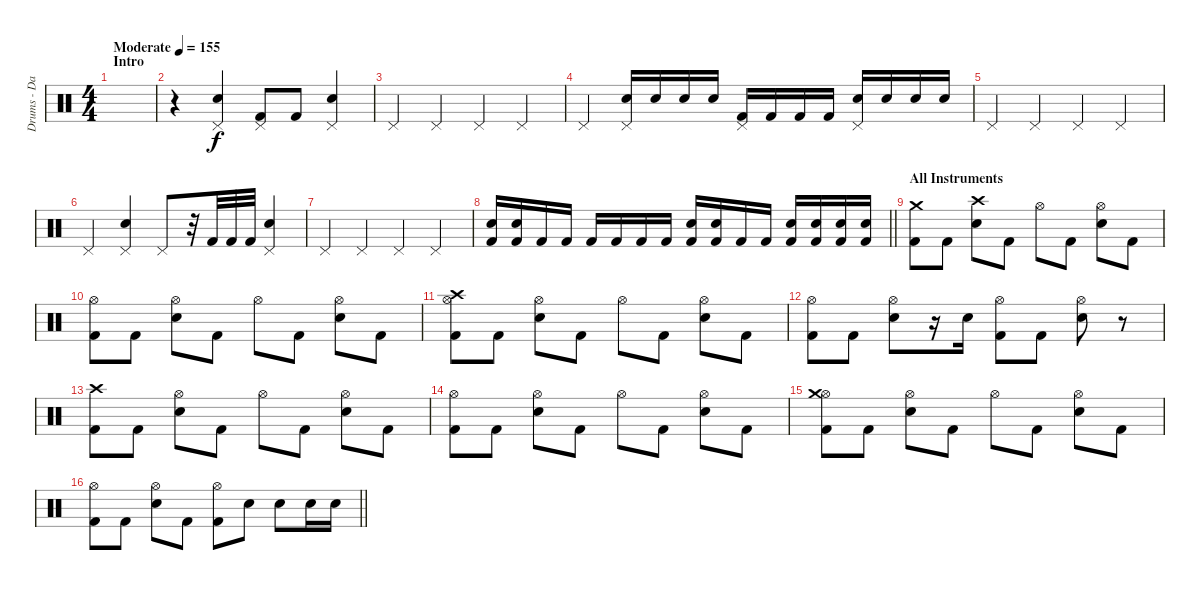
\track ("Drums - Daniel Adair" "Drums - Da") {instrument percussion bank 1}
\staff {score}
\articulation defaults
\ts (4 4)
\section ("" "Intro")
\tempo (155 "Moderate")
\clef neutral
\ks c
|
r.4 ("Pedal Hi-Hat (hit)" "Snare (hit) 2").4 ("Pedal Hi-Hat (hit)" "Kick (hit) 2").8 "Kick (hit) 2".8 ("Pedal Hi-Hat (hit)" "Snare (hit) 2").4 |
"Pedal Hi-Hat (hit)".4 "Pedal Hi-Hat (hit)".4 "Pedal Hi-Hat (hit)".4 "Pedal Hi-Hat (hit)".4 |
"Pedal Hi-Hat (hit)".4 ("Pedal Hi-Hat (hit)" "Snare (hit) 2").16 "Snare (hit) 2".16 "Snare (hit) 2".16 "Snare (hit) 2".16 ("Pedal Hi-Hat (hit)" "Kick (hit) 2").16 "Kick (hit) 2".16 "Kick (hit) 2".16 "Kick (hit) 2".16 ("Pedal Hi-Hat (hit)" "Snare (hit) 2").16 "Snare (hit) 2".16 "Snare (hit) 2".16 "Snare (hit) 2".16 |
"Pedal Hi-Hat (hit)".4 "Pedal Hi-Hat (hit)".4 "Pedal Hi-Hat (hit)".4 "Pedal Hi-Hat (hit)".4 |
"Pedal Hi-Hat (hit)".4 ("Pedal Hi-Hat (hit)" "Snare (hit) 2").4 "Pedal Hi-Hat (hit)".8 r.32 "Kick (hit) 2".32 "Kick (hit) 2".32 "Kick (hit) 2".32 ("Pedal Hi-Hat (hit)" "Snare (hit) 2").4 |
"Pedal Hi-Hat (hit)".4 "Pedal Hi-Hat (hit)".4 "Pedal Hi-Hat (hit)".4 "Pedal Hi-Hat (hit)".4 |
\barLineRight lightlight
("Snare (hit) 2" "Kick (hit) 2").16 ("Snare (hit) 2" "Kick (hit) 2").16 "Kick (hit) 2".16 "Kick (hit) 2".16 "Kick (hit) 2".16 "Kick (hit) 2".16 "Kick (hit) 2".16 "Kick (hit) 2".16 ("Snare (hit) 2" "Kick (hit) 2").16 ("Snare (hit) 2" "Kick (hit) 2").16 "Kick (hit) 2".16 "Kick (hit) 2".16 ("Snare (hit) 2" "Kick (hit) 2").16 ("Snare (hit) 2" "Kick (hit) 2").16 ("Snare (hit) 2" "Kick (hit) 2").16 ("Snare (hit) 2" "Kick (hit) 2").16 |
\section ("" "All Instruments")
("Crash medium (hit)" "Kick (hit) 2").8 "Kick (hit) 2".8 ("Crash high (hit)" "Snare (hit) 2").8 "Kick (hit) 2".8 "Hi-Hat (open)".8 "Kick (hit) 2".8 ("Hi-Hat (open)" "Snare (hit) 2").8 "Kick (hit) 2".8 |
("Hi-Hat (open)" "Kick (hit) 2").8 "Kick (hit) 2".8 ("Hi-Hat (open)" "Snare (hit) 2").8 "Kick (hit) 2".8 "Hi-Hat (open)".8 "Kick (hit) 2".8 ("Hi-Hat (open)" "Snare (hit) 2").8 "Kick (hit) 2".8 |
("Hi-Hat (open)" "Crash high (hit)" "Kick (hit) 2").8 "Kick (hit) 2".8 ("Hi-Hat (open)" "Snare (hit) 2").8 "Kick (hit) 2".8 "Hi-Hat (open)".8 "Kick (hit) 2".8 ("Hi-Hat (open)" "Snare (hit) 2").8 "Kick (hit) 2".8 |
("Hi-Hat (open)" "Kick (hit) 2").8 "Kick (hit) 2".8 ("Hi-Hat (open)" "Snare (hit) 2").8 r.16 "Snare (hit) 2".16 ("Hi-Hat (open)" "Kick (hit) 2").8 "Kick (hit) 2".8 ("Hi-Hat (open)" "Snare (hit) 2").8 r.8 |
("Crash high (hit)" "Kick (hit) 2").8 "Kick (hit) 2".8 ("Hi-Hat (open)" "Snare (hit) 2").8 "Kick (hit) 2".8 "Hi-Hat (open)".8 "Kick (hit) 2".8 ("Hi-Hat (open)" "Snare (hit) 2").8 "Kick (hit) 2".8 |
("Hi-Hat (open)" "Kick (hit) 2").8 "Kick (hit) 2".8 ("Hi-Hat (open)" "Snare (hit) 2").8 "Kick (hit) 2".8 "Hi-Hat (open)".8 "Kick (hit) 2".8 ("Hi-Hat (open)" "Snare (hit) 2").8 "Kick (hit) 2".8 |
("Hi-Hat (open)" "Crash medium (hit)" "Kick (hit) 2").8 "Kick (hit) 2".8 ("Hi-Hat (open)" "Snare (hit) 2").8 "Kick (hit) 2".8 "Hi-Hat (open)".8 "Kick (hit) 2".8 ("Hi-Hat (open)" "Snare (hit) 2").8 "Kick (hit) 2".8 |
\barLineRight lightlight
("Hi-Hat (open)" "Kick (hit) 2").8 "Kick (hit) 2".8 ("Hi-Hat (open)" "Snare (hit) 2").8 "Kick (hit) 2".8 ("Hi-Hat (open)" "Kick (hit) 2").8 "Snare (hit) 2".8 "Snare (hit) 2".8 "Snare (hit) 2".16 "Snare (hit) 2".16
